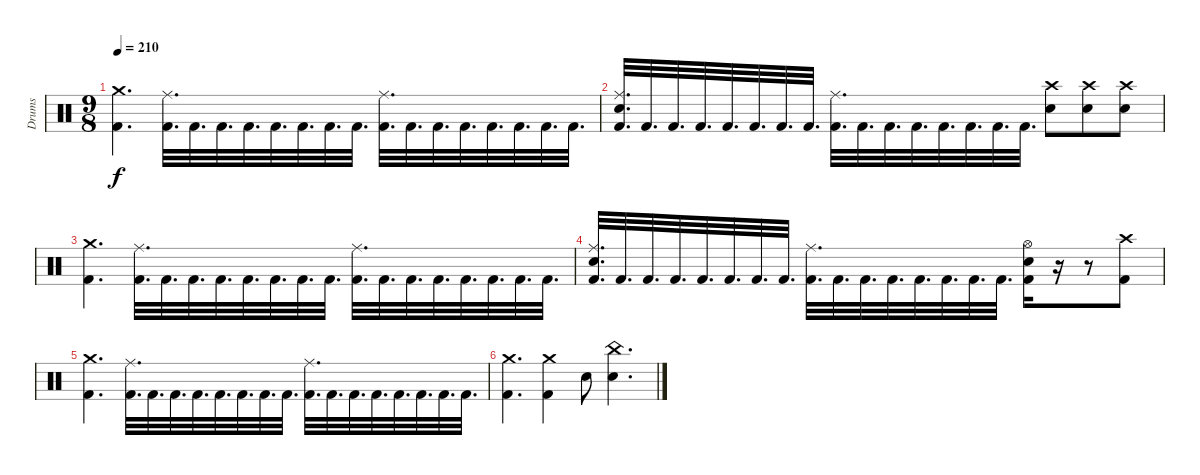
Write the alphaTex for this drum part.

\track ("Drums" "Drums") {instrument percussion}
\staff {score}
\articulation defaults
\ts (9 8)
\tempo 210
\clef neutral
\ks c
("Crash medium (hit)" "Kick (hit) 2").4{d dy f} ("Ride (middle)" "Kick (hit) 2").32{d} "Kick (hit) 2".32{d} "Kick (hit) 2".32{d} "Kick (hit) 2".32{d} "Kick (hit) 2".32{d} "Kick (hit) 2".32{d} "Kick (hit) 2".32{d} "Kick (hit) 2".32{d} ("Ride (middle)" "Kick (hit) 2").32{d} "Kick (hit) 2".32{d} "Kick (hit) 2".32{d} "Kick (hit) 2".32{d} "Kick (hit) 2".32{d} "Kick (hit) 2".32{d} "Kick (hit) 2".32{d} "Kick (hit) 2".32{d} |
("Ride (middle)" "Electric Snare (hit)" "Kick (hit) 2").32{d} "Kick (hit) 2".32{d} "Kick (hit) 2".32{d} "Kick (hit) 2".32{d} "Kick (hit) 2".32{d} "Kick (hit) 2".32{d} "Kick (hit) 2".32{d} "Kick (hit) 2".32{d} ("Ride (middle)" "Kick (hit) 2").32{d} "Kick (hit) 2".32{d} "Kick (hit) 2".32{d} "Kick (hit) 2".32{d} "Kick (hit) 2".32{d} "Kick (hit) 2".32{d} "Kick (hit) 2".32{d} "Kick (hit) 2".32{d} ("Crash high (hit)" "Electric Snare (hit)").8 ("Crash high (hit)" "Electric Snare (hit)").8 ("Crash high (hit)" "Electric Snare (hit)").8 |
("Crash medium (hit)" "Kick (hit) 2").4{d} ("Ride (middle)" "Kick (hit) 2").32{d} "Kick (hit) 2".32{d} "Kick (hit) 2".32{d} "Kick (hit) 2".32{d} "Kick (hit) 2".32{d} "Kick (hit) 2".32{d} "Kick (hit) 2".32{d} "Kick (hit) 2".32{d} ("Ride (middle)" "Kick (hit) 2").32{d} "Kick (hit) 2".32{d} "Kick (hit) 2".32{d} "Kick (hit) 2".32{d} "Kick (hit) 2".32{d} "Kick (hit) 2".32{d} "Kick (hit) 2".32{d} "Kick (hit) 2".32{d} |
("Ride (middle)" "Electric Snare (hit)" "Kick (hit) 2").32{d} "Kick (hit) 2".32{d} "Kick (hit) 2".32{d} "Kick (hit) 2".32{d} "Kick (hit) 2".32{d} "Kick (hit) 2".32{d} "Kick (hit) 2".32{d} "Kick (hit) 2".32{d} ("Ride (middle)" "Kick (hit) 2").32{d} "Kick (hit) 2".32{d} "Kick (hit) 2".32{d} "Kick (hit) 2".32{d} "Kick (hit) 2".32{d} "Kick (hit) 2".32{d} "Kick (hit) 2".32{d} "Kick (hit) 2".32{d} ("Hi-Hat (open)" "Electric Snare (hit)" "Kick (hit) 2").16 r.16 r.8 ("Crash high (hit)" "Kick (hit) 2").8 |
("Crash medium (hit)" "Kick (hit) 2").4{d} ("Ride (middle)" "Kick (hit) 2").32{d} "Kick (hit) 2".32{d} "Kick (hit) 2".32{d} "Kick (hit) 2".32{d} "Kick (hit) 2".32{d} "Kick (hit) 2".32{d} "Kick (hit) 2".32{d} "Kick (hit) 2".32{d} ("Ride (middle)" "Kick (hit) 2").32{d} "Kick (hit) 2".32{d} "Kick (hit) 2".32{d} "Kick (hit) 2".32{d} "Kick (hit) 2".32{d} "Kick (hit) 2".32{d} "Kick (hit) 2".32{d} "Kick (hit) 2".32{d} |
("Crash medium (hit)" "Kick (hit) 2").4{d} ("Crash medium (hit)" "Kick (hit) 2").4 "Electric Snare (hit)".8 ("China (hit)" "Electric Snare (hit)").4{d}
